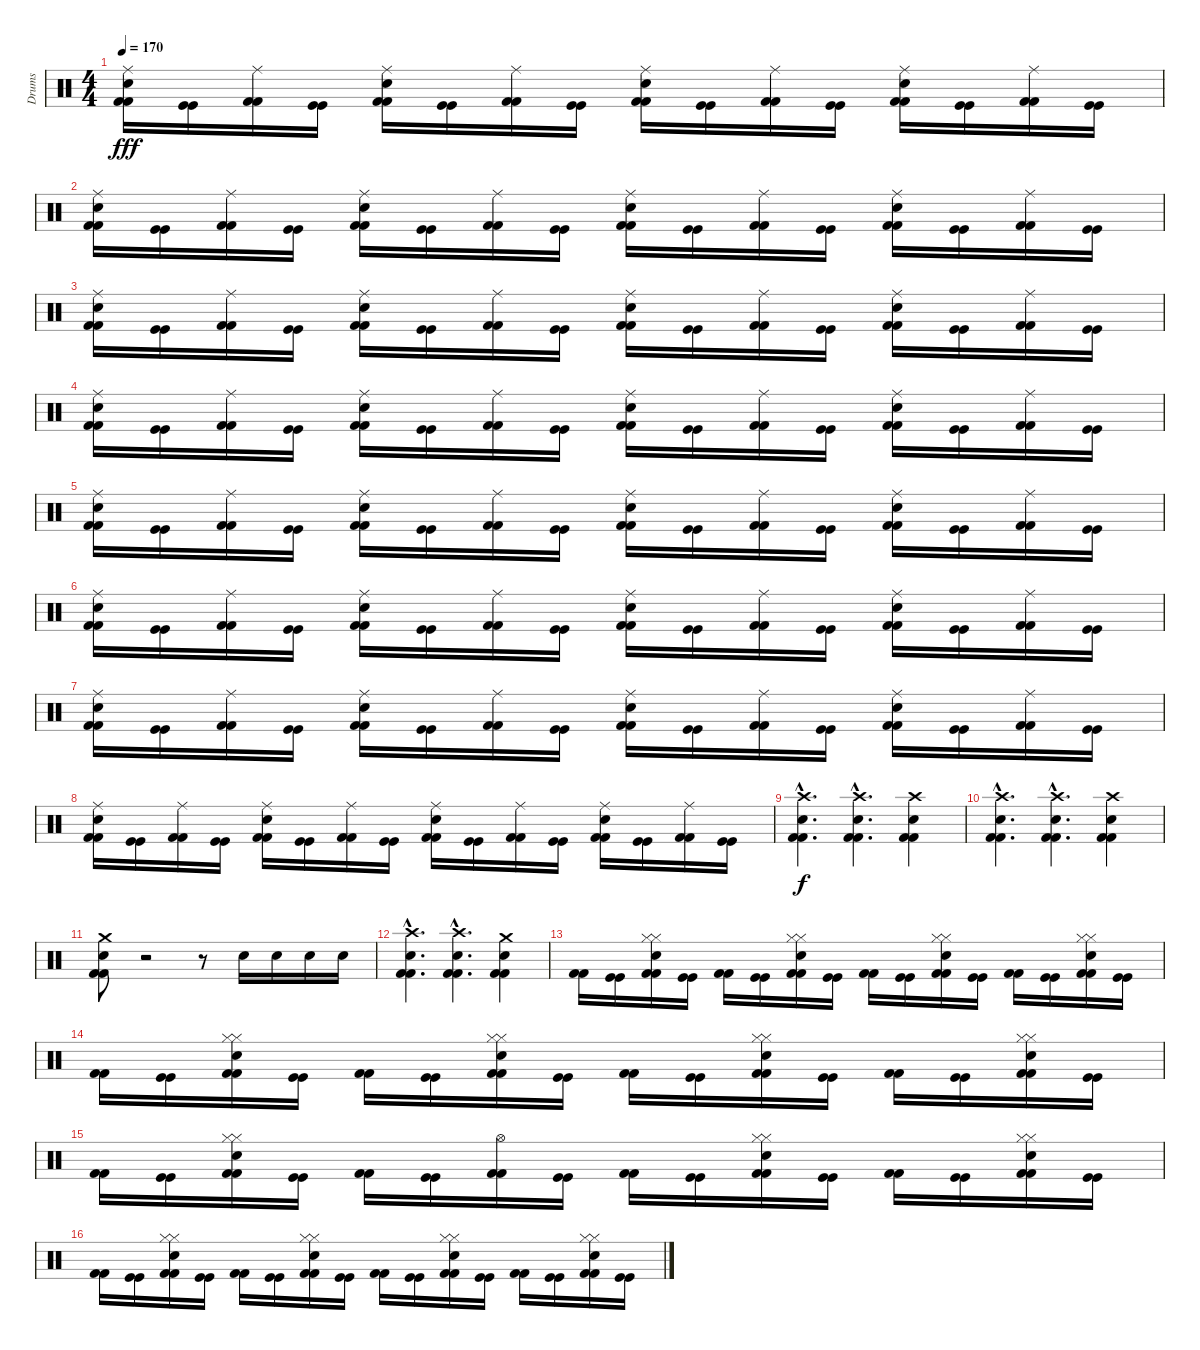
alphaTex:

\track ("Drums" "Drums") {instrument percussion}
\staff {score}
\articulation defaults
\ts (4 4)
\tempo 170
\clef neutral
\ks c
("Kick (hit) 2" "Kick (hit) 2" "Electric Snare (hit)" "Ride (middle)").16{dy fff} ("Kick (hit)" "Kick (hit)").16 ("Kick (hit) 2" "Kick (hit) 2" "Ride (middle)").16 ("Kick (hit)" "Kick (hit)").16 ("Kick (hit) 2" "Kick (hit) 2" "Electric Snare (hit)" "Ride (middle)").16 ("Kick (hit)" "Kick (hit)").16 ("Kick (hit) 2" "Kick (hit) 2" "Ride (middle)").16 ("Kick (hit)" "Kick (hit)").16 ("Kick (hit) 2" "Kick (hit) 2" "Electric Snare (hit)" "Ride (middle)").16 ("Kick (hit)" "Kick (hit)").16 ("Kick (hit) 2" "Kick (hit) 2" "Ride (middle)").16 ("Kick (hit)" "Kick (hit)").16 ("Kick (hit) 2" "Kick (hit) 2" "Electric Snare (hit)" "Ride (middle)").16 ("Kick (hit)" "Kick (hit)").16 ("Kick (hit) 2" "Kick (hit) 2" "Ride (middle)").16 ("Kick (hit)" "Kick (hit)").16 |
("Kick (hit) 2" "Kick (hit) 2" "Electric Snare (hit)" "Ride (middle)").16 ("Kick (hit)" "Kick (hit)").16 ("Kick (hit) 2" "Kick (hit) 2" "Ride (middle)").16 ("Kick (hit)" "Kick (hit)").16 ("Kick (hit) 2" "Kick (hit) 2" "Electric Snare (hit)" "Ride (middle)").16 ("Kick (hit)" "Kick (hit)").16 ("Kick (hit) 2" "Kick (hit) 2" "Ride (middle)").16 ("Kick (hit)" "Kick (hit)").16 ("Kick (hit) 2" "Kick (hit) 2" "Electric Snare (hit)" "Ride (middle)").16 ("Kick (hit)" "Kick (hit)").16 ("Kick (hit) 2" "Kick (hit) 2" "Ride (middle)").16 ("Kick (hit)" "Kick (hit)").16 ("Kick (hit) 2" "Kick (hit) 2" "Electric Snare (hit)" "Ride (middle)").16 ("Kick (hit)" "Kick (hit)").16 ("Kick (hit) 2" "Kick (hit) 2" "Ride (middle)").16 ("Kick (hit)" "Kick (hit)").16 |
("Kick (hit) 2" "Kick (hit) 2" "Electric Snare (hit)" "Ride (middle)").16 ("Kick (hit)" "Kick (hit)").16 ("Kick (hit) 2" "Kick (hit) 2" "Ride (middle)").16 ("Kick (hit)" "Kick (hit)").16 ("Kick (hit) 2" "Kick (hit) 2" "Electric Snare (hit)" "Ride (middle)").16 ("Kick (hit)" "Kick (hit)").16 ("Kick (hit) 2" "Kick (hit) 2" "Ride (middle)").16 ("Kick (hit)" "Kick (hit)").16 ("Kick (hit) 2" "Kick (hit) 2" "Electric Snare (hit)" "Ride (middle)").16 ("Kick (hit)" "Kick (hit)").16 ("Kick (hit) 2" "Kick (hit) 2" "Ride (middle)").16 ("Kick (hit)" "Kick (hit)").16 ("Kick (hit) 2" "Kick (hit) 2" "Electric Snare (hit)" "Ride (middle)").16 ("Kick (hit)" "Kick (hit)").16 ("Kick (hit) 2" "Kick (hit) 2" "Ride (middle)").16 ("Kick (hit)" "Kick (hit)").16 |
("Kick (hit) 2" "Kick (hit) 2" "Electric Snare (hit)" "Ride (middle)").16 ("Kick (hit)" "Kick (hit)").16 ("Kick (hit) 2" "Kick (hit) 2" "Ride (middle)").16 ("Kick (hit)" "Kick (hit)").16 ("Kick (hit) 2" "Kick (hit) 2" "Electric Snare (hit)" "Ride (middle)").16 ("Kick (hit)" "Kick (hit)").16 ("Kick (hit) 2" "Kick (hit) 2" "Ride (middle)").16 ("Kick (hit)" "Kick (hit)").16 ("Kick (hit) 2" "Kick (hit) 2" "Electric Snare (hit)" "Ride (middle)").16 ("Kick (hit)" "Kick (hit)").16 ("Kick (hit) 2" "Kick (hit) 2" "Ride (middle)").16 ("Kick (hit)" "Kick (hit)").16 ("Kick (hit) 2" "Kick (hit) 2" "Electric Snare (hit)" "Ride (middle)").16 ("Kick (hit)" "Kick (hit)").16 ("Kick (hit) 2" "Kick (hit) 2" "Ride (middle)").16 ("Kick (hit)" "Kick (hit)").16 |
("Kick (hit) 2" "Kick (hit) 2" "Electric Snare (hit)" "Ride (middle)").16 ("Kick (hit)" "Kick (hit)").16 ("Kick (hit) 2" "Kick (hit) 2" "Ride (middle)").16 ("Kick (hit)" "Kick (hit)").16 ("Kick (hit) 2" "Kick (hit) 2" "Electric Snare (hit)" "Ride (middle)").16 ("Kick (hit)" "Kick (hit)").16 ("Kick (hit) 2" "Kick (hit) 2" "Ride (middle)").16 ("Kick (hit)" "Kick (hit)").16 ("Kick (hit) 2" "Kick (hit) 2" "Electric Snare (hit)" "Ride (middle)").16 ("Kick (hit)" "Kick (hit)").16 ("Kick (hit) 2" "Kick (hit) 2" "Ride (middle)").16 ("Kick (hit)" "Kick (hit)").16 ("Kick (hit) 2" "Kick (hit) 2" "Electric Snare (hit)" "Ride (middle)").16 ("Kick (hit)" "Kick (hit)").16 ("Kick (hit) 2" "Kick (hit) 2" "Ride (middle)").16 ("Kick (hit)" "Kick (hit)").16 |
("Kick (hit) 2" "Kick (hit) 2" "Electric Snare (hit)" "Ride (middle)").16 ("Kick (hit)" "Kick (hit)").16 ("Kick (hit) 2" "Kick (hit) 2" "Ride (middle)").16 ("Kick (hit)" "Kick (hit)").16 ("Kick (hit) 2" "Kick (hit) 2" "Electric Snare (hit)" "Ride (middle)").16 ("Kick (hit)" "Kick (hit)").16 ("Kick (hit) 2" "Kick (hit) 2" "Ride (middle)").16 ("Kick (hit)" "Kick (hit)").16 ("Kick (hit) 2" "Kick (hit) 2" "Electric Snare (hit)" "Ride (middle)").16 ("Kick (hit)" "Kick (hit)").16 ("Kick (hit) 2" "Kick (hit) 2" "Ride (middle)").16 ("Kick (hit)" "Kick (hit)").16 ("Kick (hit) 2" "Kick (hit) 2" "Electric Snare (hit)" "Ride (middle)").16 ("Kick (hit)" "Kick (hit)").16 ("Kick (hit) 2" "Kick (hit) 2" "Ride (middle)").16 ("Kick (hit)" "Kick (hit)").16 |
("Kick (hit) 2" "Kick (hit) 2" "Electric Snare (hit)" "Ride (middle)").16 ("Kick (hit)" "Kick (hit)").16 ("Kick (hit) 2" "Kick (hit) 2" "Ride (middle)").16 ("Kick (hit)" "Kick (hit)").16 ("Kick (hit) 2" "Kick (hit) 2" "Electric Snare (hit)" "Ride (middle)").16 ("Kick (hit)" "Kick (hit)").16 ("Kick (hit) 2" "Kick (hit) 2" "Ride (middle)").16 ("Kick (hit)" "Kick (hit)").16 ("Kick (hit) 2" "Kick (hit) 2" "Electric Snare (hit)" "Ride (middle)").16 ("Kick (hit)" "Kick (hit)").16 ("Kick (hit) 2" "Kick (hit) 2" "Ride (middle)").16 ("Kick (hit)" "Kick (hit)").16 ("Kick (hit) 2" "Kick (hit) 2" "Electric Snare (hit)" "Ride (middle)").16 ("Kick (hit)" "Kick (hit)").16 ("Kick (hit) 2" "Kick (hit) 2" "Ride (middle)").16 ("Kick (hit)" "Kick (hit)").16 |
("Kick (hit) 2" "Kick (hit) 2" "Electric Snare (hit)" "Ride (middle)").16 ("Kick (hit)" "Kick (hit)").16 ("Kick (hit) 2" "Kick (hit) 2" "Ride (middle)").16 ("Kick (hit)" "Kick (hit)").16 ("Kick (hit) 2" "Kick (hit) 2" "Electric Snare (hit)" "Ride (middle)").16 ("Kick (hit)" "Kick (hit)").16 ("Kick (hit) 2" "Kick (hit) 2" "Ride (middle)").16 ("Kick (hit)" "Kick (hit)").16 ("Kick (hit) 2" "Kick (hit) 2" "Electric Snare (hit)" "Ride (middle)").16 ("Kick (hit)" "Kick (hit)").16 ("Kick (hit) 2" "Kick (hit) 2" "Ride (middle)").16 ("Kick (hit)" "Kick (hit)").16 ("Kick (hit) 2" "Kick (hit) 2" "Electric Snare (hit)" "Ride (middle)").16 ("Kick (hit)" "Kick (hit)").16 ("Kick (hit) 2" "Kick (hit) 2" "Ride (middle)").16 ("Kick (hit)" "Kick (hit)").16 |
("Kick (hit) 2"{hac} "Kick (hit) 2"{hac} "Electric Snare (hit)"{hac} "Crash high (hit)"{hac}).4{d dy f} ("Kick (hit) 2"{hac} "Kick (hit) 2"{hac} "Electric Snare (hit)"{hac} "Crash high (hit)"{hac}).4{d} ("Kick (hit) 2" "Kick (hit) 2" "Electric Snare (hit)" "Crash high (hit)").4 |
("Kick (hit) 2"{hac} "Kick (hit) 2"{hac} "Electric Snare (hit)"{hac} "Crash high (hit)"{hac}).4{d} ("Kick (hit) 2"{hac} "Kick (hit) 2"{hac} "Electric Snare (hit)"{hac} "Crash high (hit)"{hac}).4{d} ("Kick (hit) 2" "Kick (hit) 2" "Electric Snare (hit)" "Crash high (hit)").4 |
("Kick (hit) 2" "Kick (hit) 2" "Electric Snare (hit)" "Crash medium (hit)").8 r.2 r.8 "Electric Snare (hit)".16 "Electric Snare (hit)".16 "Electric Snare (hit)".16 "Electric Snare (hit)".16 |
("Kick (hit) 2"{hac} "Kick (hit) 2"{hac} "Electric Snare (hit)"{hac} "Crash high (hit)"{hac}).4{d} ("Kick (hit) 2"{hac} "Kick (hit) 2"{hac} "Electric Snare (hit)"{hac} "Crash high (hit)"{hac}).4{d} ("Kick (hit) 2" "Kick (hit) 2" "Electric Snare (hit)" "Crash medium (hit)").4 |
("Kick (hit) 2" "Kick (hit) 2").16 ("Kick (hit)" "Kick (hit)").16 ("Hi-Hat (closed)" "Hi-Hat (closed)" "Electric Snare (hit)" "Kick (hit) 2" "Kick (hit) 2").16 ("Kick (hit)" "Kick (hit)").16 ("Kick (hit) 2" "Kick (hit) 2").16 ("Kick (hit)" "Kick (hit)").16 ("Hi-Hat (closed)" "Hi-Hat (closed)" "Electric Snare (hit)" "Kick (hit) 2" "Kick (hit) 2").16 ("Kick (hit)" "Kick (hit)").16 ("Kick (hit) 2" "Kick (hit) 2").16 ("Kick (hit)" "Kick (hit)").16 ("Hi-Hat (closed)" "Hi-Hat (closed)" "Electric Snare (hit)" "Kick (hit) 2" "Kick (hit) 2").16 ("Kick (hit)" "Kick (hit)").16 ("Kick (hit) 2" "Kick (hit) 2").16 ("Kick (hit)" "Kick (hit)").16 ("Hi-Hat (closed)" "Hi-Hat (closed)" "Electric Snare (hit)" "Kick (hit) 2" "Kick (hit) 2").16 ("Kick (hit)" "Kick (hit)").16 |
("Kick (hit) 2" "Kick (hit) 2").16 ("Kick (hit)" "Kick (hit)").16 ("Hi-Hat (closed)" "Hi-Hat (closed)" "Electric Snare (hit)" "Kick (hit) 2" "Kick (hit) 2").16 ("Kick (hit)" "Kick (hit)").16 ("Kick (hit) 2" "Kick (hit) 2").16 ("Kick (hit)" "Kick (hit)").16 ("Hi-Hat (closed)" "Hi-Hat (closed)" "Electric Snare (hit)" "Kick (hit) 2" "Kick (hit) 2").16 ("Kick (hit)" "Kick (hit)").16 ("Kick (hit) 2" "Kick (hit) 2").16 ("Kick (hit)" "Kick (hit)").16 ("Hi-Hat (closed)" "Hi-Hat (closed)" "Electric Snare (hit)" "Kick (hit) 2" "Kick (hit) 2").16 ("Kick (hit)" "Kick (hit)").16 ("Kick (hit) 2" "Kick (hit) 2").16 ("Kick (hit)" "Kick (hit)").16 ("Hi-Hat (closed)" "Hi-Hat (closed)" "Electric Snare (hit)" "Kick (hit) 2" "Kick (hit) 2").16 ("Kick (hit)" "Kick (hit)").16 |
("Kick (hit) 2" "Kick (hit) 2").16 ("Kick (hit)" "Kick (hit)").16 ("Hi-Hat (closed)" "Hi-Hat (closed)" "Electric Snare (hit)" "Kick (hit) 2" "Kick (hit) 2").16 ("Kick (hit)" "Kick (hit)").16 ("Kick (hit) 2" "Kick (hit) 2").16 ("Kick (hit)" "Kick (hit)").16 ("Hi-Hat (open)" "Kick (hit) 2" "Kick (hit) 2").16 ("Kick (hit)" "Kick (hit)").16 ("Kick (hit) 2" "Kick (hit) 2").16 ("Kick (hit)" "Kick (hit)").16 ("Hi-Hat (closed)" "Hi-Hat (closed)" "Electric Snare (hit)" "Kick (hit) 2" "Kick (hit) 2").16 ("Kick (hit)" "Kick (hit)").16 ("Kick (hit) 2" "Kick (hit) 2").16 ("Kick (hit)" "Kick (hit)").16 ("Hi-Hat (closed)" "Hi-Hat (closed)" "Electric Snare (hit)" "Kick (hit) 2" "Kick (hit) 2").16 ("Kick (hit)" "Kick (hit)").16 |
("Kick (hit) 2" "Kick (hit) 2").16 ("Kick (hit)" "Kick (hit)").16 ("Hi-Hat (closed)" "Hi-Hat (closed)" "Electric Snare (hit)" "Kick (hit) 2" "Kick (hit) 2").16 ("Kick (hit)" "Kick (hit)").16 ("Kick (hit) 2" "Kick (hit) 2").16 ("Kick (hit)" "Kick (hit)").16 ("Hi-Hat (closed)" "Hi-Hat (closed)" "Electric Snare (hit)" "Kick (hit) 2" "Kick (hit) 2").16 ("Kick (hit)" "Kick (hit)").16 ("Kick (hit) 2" "Kick (hit) 2").16 ("Kick (hit)" "Kick (hit)").16 ("Hi-Hat (closed)" "Hi-Hat (closed)" "Electric Snare (hit)" "Kick (hit) 2" "Kick (hit) 2").16 ("Kick (hit)" "Kick (hit)").16 ("Kick (hit) 2" "Kick (hit) 2").16 ("Kick (hit)" "Kick (hit)").16 ("Hi-Hat (closed)" "Hi-Hat (closed)" "Electric Snare (hit)" "Kick (hit) 2" "Kick (hit) 2").16 ("Kick (hit)" "Kick (hit)").16
